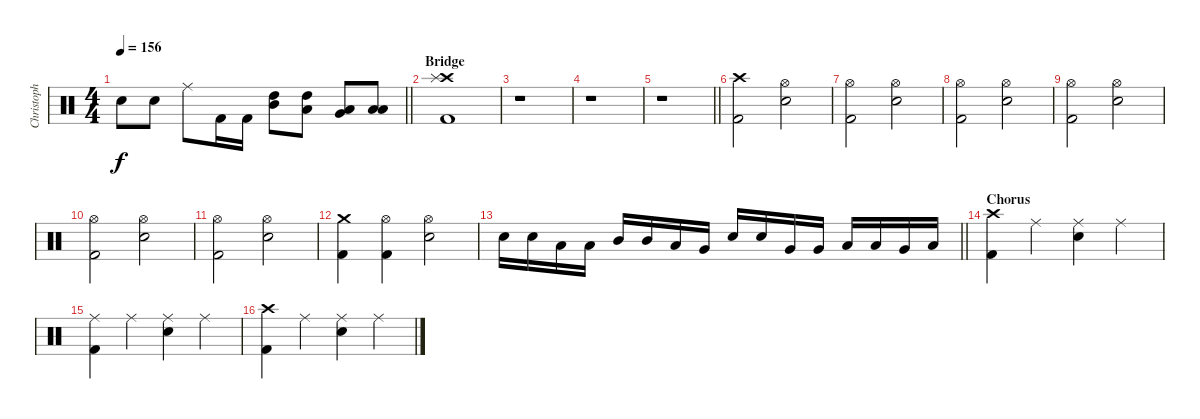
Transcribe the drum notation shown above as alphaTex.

\track ("Christoph Schneider" "Christoph ") {instrument percussion}
\staff {score}
\articulation defaults
\ts (4 4)
\tempo 156
\clef neutral
\barLineRight lightlight
\ks c "Snare (hit) 2".8{dy f} "Snare (hit) 2".8 "Ride (middle)".8 "Kick (hit) 2".16 "Kick (hit) 2".16
("High Tom (hit)" "Mid Tom (hit)").8 ("High Tom (hit)" "Low Tom (hit)").8 ("Low Tom (hit)" "Very Low Tom (hit)").8 ("Low Tom (hit)" "Low Floor Tom (hit)").8 |
\section ("" "Bridge")
("Crash high (hit)" "Splash (hit)" "Kick (hit) 2").1 |
r.1 |
r.1 |
\barLineRight lightlight
r.1 |
("Crash high (hit)" "Kick (hit) 2").2 ("Hi-Hat (open)" "Snare (hit) 2").2 |
("Hi-Hat (open)" "Kick (hit) 2").2 ("Hi-Hat (open)" "Snare (hit) 2").2 |
("Hi-Hat (open)" "Kick (hit) 2").2 ("Hi-Hat (open)" "Snare (hit) 2").2 |
("Hi-Hat (open)" "Kick (hit) 2").2 ("Hi-Hat (open)" "Snare (hit) 2").2 |
("Hi-Hat (open)" "Kick (hit) 2").2 ("Hi-Hat (open)" "Snare (hit) 2").2 |
("Hi-Hat (open)" "Kick (hit) 2").2 ("Hi-Hat (open)" "Snare (hit) 2").2 |
("Crash medium (hit)" "Kick (hit) 2").4 ("Hi-Hat (open)" "Kick (hit) 2").4 ("Hi-Hat (open)" "Snare (hit) 2").2 |
\barLineRight lightlight "Snare (hit) 2".16 "Snare (hit) 2".16 "Low Tom (hit)".16 "Low Tom (hit)".16 "Mid Tom (hit)".16 "Mid Tom (hit)".16 "Low Tom (hit)".16 "Very Low Tom (hit)".16 "Snare (hit) 2".16 "Snare (hit) 2".16 "Very Low Tom (hit)".16 "Very Low Tom (hit)".16 "Low Tom (hit)".16 "Low Tom (hit)".16 "Very Low Tom (hit)".16 "Low Floor Tom (hit)".16
|
\section ("" "Chorus")
("Crash high (hit)" "Kick (hit) 2").4 "Ride (middle)".4 ("Ride (middle)" "Snare (hit) 2").4 "Ride (middle)".4 |
("Ride (middle)" "Kick (hit) 2").4 "Ride (middle)".4 ("Ride (middle)" "Snare (hit) 2").4 "Ride (middle)".4 |
("Crash high (hit)" "Kick (hit) 2").4 "Ride (middle)".4 ("Ride (middle)" "Snare (hit) 2").4 "Ride (middle)".4
